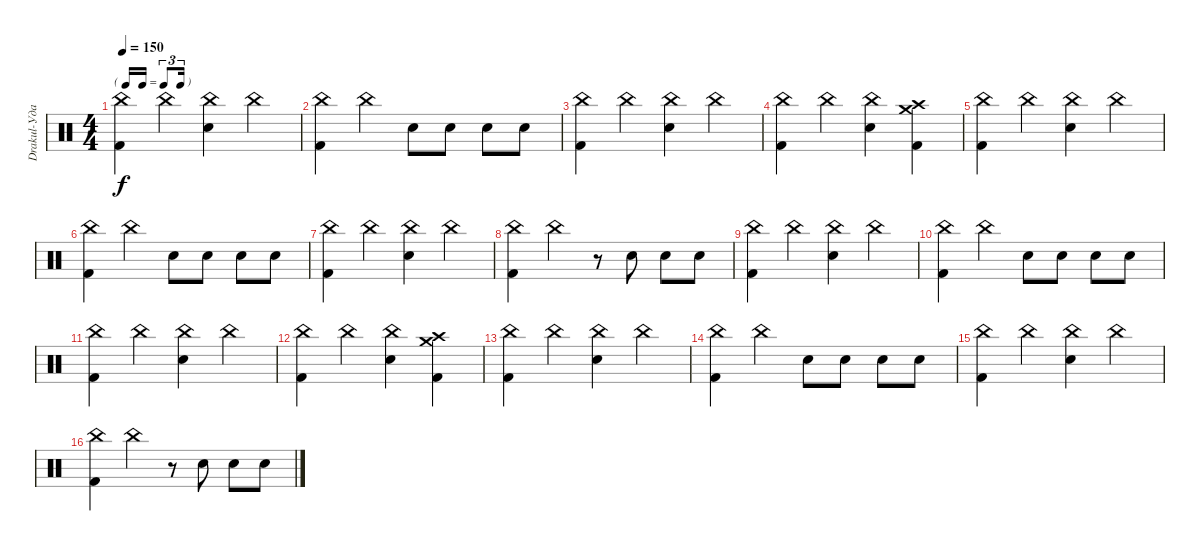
\track ("Drakul-Ударные " "Drakul-Уда") {instrument percussion}
\staff {score}
\articulation defaults
\ts (4 4)
\tf triplet16th
\tempo 150
\clef neutral
\ks c
("Kick (hit) 2" "China (hit)").4{dy f} "China (hit)".4 ("Electric Snare (hit)" "China (hit)").4 "China (hit)".4 |
("Kick (hit) 2" "China (hit)").4 "China (hit)".4 "Electric Snare (hit)".8 "Electric Snare (hit)".8 "Electric Snare (hit)".8 "Electric Snare (hit)".8 |
("Kick (hit) 2" "China (hit)").4 "China (hit)".4 ("Electric Snare (hit)" "China (hit)").4 "China (hit)".4 |
("Kick (hit) 2" "China (hit)").4 "China (hit)".4 ("Electric Snare (hit)" "China (hit)").4 ("Kick (hit) 2" "Crash high (hit)" "Crash medium (hit)").4 |
("Kick (hit) 2" "China (hit)").4 "China (hit)".4 ("Electric Snare (hit)" "China (hit)").4 "China (hit)".4 |
("Kick (hit) 2" "China (hit)").4 "China (hit)".4 "Electric Snare (hit)".8 "Electric Snare (hit)".8 "Electric Snare (hit)".8 "Electric Snare (hit)".8 |
("Kick (hit) 2" "China (hit)").4 "China (hit)".4 ("Electric Snare (hit)" "China (hit)").4 "China (hit)".4 |
("Kick (hit) 2" "China (hit)").4 "China (hit)".4 r.8 "Electric Snare (hit)".8 "Electric Snare (hit)".8 "Electric Snare (hit)".8 |
("Kick (hit) 2" "China (hit)").4 "China (hit)".4 ("Electric Snare (hit)" "China (hit)").4 "China (hit)".4 |
("Kick (hit) 2" "China (hit)").4 "China (hit)".4 "Electric Snare (hit)".8 "Electric Snare (hit)".8 "Electric Snare (hit)".8 "Electric Snare (hit)".8 |
("Kick (hit) 2" "China (hit)").4 "China (hit)".4 ("Electric Snare (hit)" "China (hit)").4 "China (hit)".4 |
("Kick (hit) 2" "China (hit)").4 "China (hit)".4 ("Electric Snare (hit)" "China (hit)").4 ("Kick (hit) 2" "Crash high (hit)" "Crash medium (hit)").4 |
("Kick (hit) 2" "China (hit)").4 "China (hit)".4 ("Electric Snare (hit)" "China (hit)").4 "China (hit)".4 |
("Kick (hit) 2" "China (hit)").4 "China (hit)".4 "Electric Snare (hit)".8 "Electric Snare (hit)".8 "Electric Snare (hit)".8 "Electric Snare (hit)".8 |
("Kick (hit) 2" "China (hit)").4 "China (hit)".4 ("Electric Snare (hit)" "China (hit)").4 "China (hit)".4 |
("Kick (hit) 2" "China (hit)").4 "China (hit)".4 r.8 "Electric Snare (hit)".8 "Electric Snare (hit)".8 "Electric Snare (hit)".8
